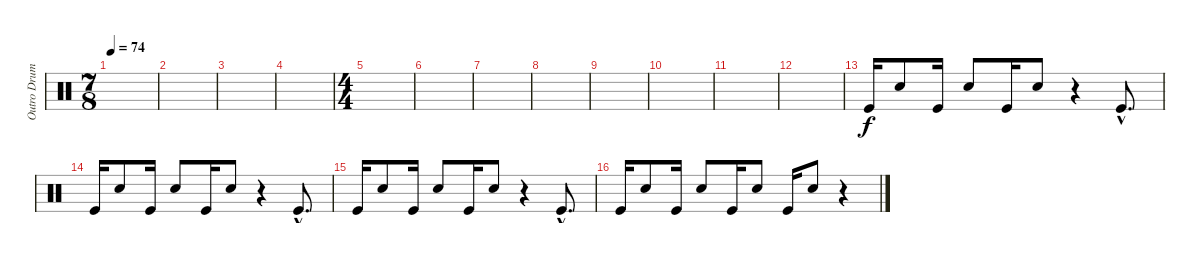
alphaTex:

\track ("Outro Drums" "Outro Drum") {instrument percussion}
\staff {score}
\articulation defaults
\ts (7 8)
\tempo 74
\clef neutral
\ks c
|
|
|
|
\ts (4 4)
|
|
|
|
|
|
|
|
"Kick (hit)".16 "Snare (hit) 2".8 "Kick (hit)".16 "Snare (hit) 2".8 "Kick (hit)".16 "Snare (hit) 2".8 r.4 "Kick (hit)"{hac}.8{d} |
"Kick (hit)".16 "Snare (hit) 2".8 "Kick (hit)".16 "Snare (hit) 2".8 "Kick (hit)".16 "Snare (hit) 2".8 r.4 "Kick (hit)"{hac}.8{d} |
"Kick (hit)".16 "Snare (hit) 2".8 "Kick (hit)".16 "Snare (hit) 2".8 "Kick (hit)".16 "Snare (hit) 2".8 r.4 "Kick (hit)"{hac}.8{d} |
"Kick (hit)".16 "Snare (hit) 2".8 "Kick (hit)".16 "Snare (hit) 2".8 "Kick (hit)".16 "Snare (hit) 2".8 "Kick (hit)".16 "Snare (hit) 2".8 r.4
